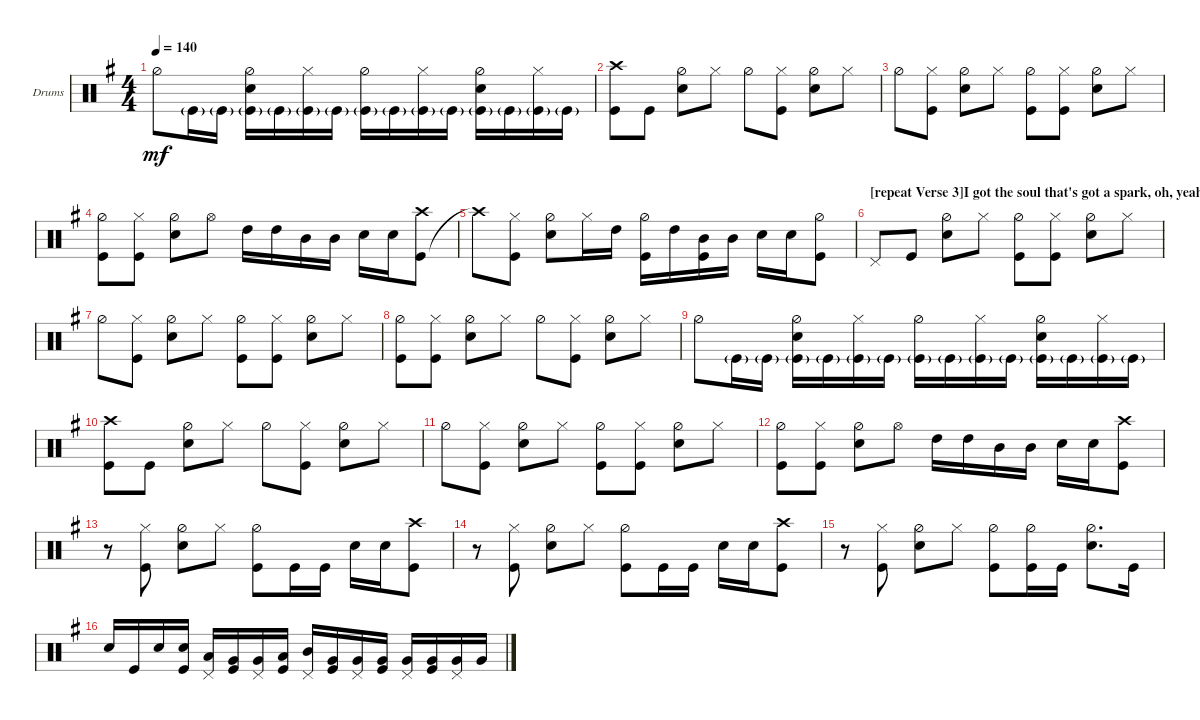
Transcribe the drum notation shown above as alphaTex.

\defaultSystemsLayout 4
\bracketExtendMode groupsimilarinstruments
\firstSystemTrackNameOrientation horizontal
\otherSystemsTrackNameOrientation horizontal
\track ("Drumkit" "Drums") {instrument percussion}
\staff {score}
\articulation defaults
\ts (4 4)
\tempo 140
\clef neutral
\ks g "Hi-Hat (half)".8{dy mf} "Kick (hit)"{g}.16 "Kick (hit)"{g}.16
("Kick (hit)"{g} "Hi-Hat (half)" "Snare (hit) 2").16 "Kick (hit)"{g}.16 ("Kick (hit)"{g} "Hi-Hat (closed)").16 "Kick (hit)"{g}.16 ("Kick (hit)"{g} "Hi-Hat (half)").16 "Kick (hit)"{g}.16 ("Kick (hit)"{g} "Hi-Hat (closed)").16 "Kick (hit)"{g}.16 ("Kick (hit)"{g} "Hi-Hat (half)" "Snare (hit) 2").16 "Kick (hit)"{g}.16 ("Kick (hit)"{g} "Hi-Hat (closed)").16 "Kick (hit)"{g}.16 |
("Crash high (hit)" "Kick (hit)").8 "Kick (hit)".8 ("Hi-Hat (half)" "Snare (hit) 2").8 "Hi-Hat (closed)".8 "Hi-Hat (half)".8 ("Kick (hit)" "Hi-Hat (closed)").8 ("Hi-Hat (half)" "Snare (hit) 2").8 "Hi-Hat (closed)".8 |
"Hi-Hat (half)".8 ("Hi-Hat (closed)" "Kick (hit)").8 ("Hi-Hat (half)" "Snare (hit) 2").8 "Hi-Hat (closed)".8 ("Hi-Hat (half)" "Kick (hit)").8 ("Kick (hit)" "Hi-Hat (closed)").8 ("Hi-Hat (half)" "Snare (hit) 2").8 "Hi-Hat (closed)".8 |
("Hi-Hat (half)" "Kick (hit)").8 ("Hi-Hat (closed)" "Kick (hit)").8 ("Hi-Hat (half)" "Snare (hit) 2").8 "Hi-Hat (open)".8 "High Tom (hit)".16 "High Tom (hit)".16 "Mid Tom (hit)".16 "Mid Tom (hit)".16 "Snare (hit) 2".16 "Snare (hit) 2".16 ("Kick (hit)" "Crash high (hit)").8 |
"Crash high (hit)"{t}.8 ("Hi-Hat (closed)" "Kick (hit)").8 ("Hi-Hat (half)" "Snare (hit) 2").8 "Hi-Hat (closed)".16 "High Tom (hit)".16 ("Hi-Hat (half)" "Kick (hit)").16 "High Tom (hit)".16 ("Kick (hit)" "Mid Tom (hit)").16 "Mid Tom (hit)".16 "Snare (hit) 2".16 "Snare (hit) 2".16 ("Kick (hit)" "Hi-Hat (half)").8 |
\section ("" "[repeat Verse 3]I got the soul that's got a spark, oh, yeah")
"Pedal Hi-Hat (hit)".8 "Kick (hit)".8 ("Hi-Hat (half)" "Snare (hit) 2").8 "Hi-Hat (closed)".8 ("Hi-Hat (half)" "Kick (hit)").8 ("Kick (hit)" "Hi-Hat (closed)").8 ("Hi-Hat (half)" "Snare (hit) 2").8 "Hi-Hat (closed)".8 |
"Hi-Hat (half)".8 ("Hi-Hat (closed)" "Kick (hit)").8 ("Hi-Hat (half)" "Snare (hit) 2").8 "Hi-Hat (closed)".8 ("Hi-Hat (half)" "Kick (hit)").8 ("Kick (hit)" "Hi-Hat (closed)").8 ("Hi-Hat (half)" "Snare (hit) 2").8 "Hi-Hat (closed)".8 |
("Hi-Hat (half)" "Kick (hit)").8 ("Hi-Hat (closed)" "Kick (hit)").8 ("Hi-Hat (half)" "Snare (hit) 2").8 "Hi-Hat (closed)".8 "Hi-Hat (half)".8 ("Kick (hit)" "Hi-Hat (closed)").8 ("Hi-Hat (half)" "Snare (hit) 2").8 "Hi-Hat (closed)".8 |
"Hi-Hat (half)".8 "Kick (hit)"{g}.16 "Kick (hit)"{g}.16 ("Kick (hit)"{g} "Hi-Hat (half)" "Snare (hit) 2").16 "Kick (hit)"{g}.16 ("Kick (hit)"{g} "Hi-Hat (closed)").16 "Kick (hit)"{g}.16 ("Kick (hit)"{g} "Hi-Hat (half)").16 "Kick (hit)"{g}.16 ("Kick (hit)"{g} "Hi-Hat (closed)").16 "Kick (hit)"{g}.16 ("Kick (hit)"{g} "Hi-Hat (half)" "Snare (hit) 2").16 "Kick (hit)"{g}.16 ("Kick (hit)"{g} "Hi-Hat (closed)").16 "Kick (hit)"{g}.16 |
("Crash high (hit)" "Kick (hit)").8 "Kick (hit)".8 ("Hi-Hat (half)" "Snare (hit) 2").8 "Hi-Hat (closed)".8 "Hi-Hat (half)".8 ("Kick (hit)" "Hi-Hat (closed)").8 ("Hi-Hat (half)" "Snare (hit) 2").8 "Hi-Hat (closed)".8 |
"Hi-Hat (half)".8 ("Hi-Hat (closed)" "Kick (hit)").8 ("Hi-Hat (half)" "Snare (hit) 2").8 "Hi-Hat (closed)".8 ("Hi-Hat (half)" "Kick (hit)").8 ("Kick (hit)" "Hi-Hat (closed)").8 ("Hi-Hat (half)" "Snare (hit) 2").8 "Hi-Hat (closed)".8 |
("Hi-Hat (half)" "Kick (hit)").8 ("Hi-Hat (closed)" "Kick (hit)").8 ("Hi-Hat (half)" "Snare (hit) 2").8 "Hi-Hat (open)".8 "High Tom (hit)".16 "High Tom (hit)".16 "Mid Tom (hit)".16 "Mid Tom (hit)".16 "Snare (hit) 2".16 "Snare (hit) 2".16 ("Kick (hit)" "Crash high (hit)").8 |
r.8 ("Hi-Hat (closed)" "Kick (hit)").8 ("Hi-Hat (half)" "Snare (hit) 2").8 "Hi-Hat (closed)".8 ("Hi-Hat (half)" "Kick (hit)").8 "Kick (hit)".16 "Kick (hit)".16 "Snare (hit) 2".16 "Snare (hit) 2".16 ("Kick (hit)" "Crash high (hit)").8 |
r.8 ("Hi-Hat (closed)" "Kick (hit)").8 ("Hi-Hat (half)" "Snare (hit) 2").8 "Hi-Hat (closed)".8 ("Hi-Hat (half)" "Kick (hit)").8 "Kick (hit)".16 "Kick (hit)".16 "Snare (hit) 2".16 "Snare (hit) 2".16 ("Kick (hit)" "Crash high (hit)").8 |
r.8 ("Hi-Hat (closed)" "Kick (hit)").8 ("Hi-Hat (half)" "Snare (hit) 2").8 "Hi-Hat (closed)".8 ("Hi-Hat (half)" "Kick (hit)").8 ("Kick (hit)" "Hi-Hat (half)").16 "Kick (hit)".16 ("Snare (hit) 2" "Hi-Hat (half)").8{d} "Kick (hit)".16 |
"Snare (hit) 2".16 "Kick (hit)".16 "Snare (hit) 2".16 ("Kick (hit)" "Snare (hit) 2").16 ("Pedal Hi-Hat (hit)" "Low Tom (hit)").16 ("Kick (hit)" "Very Low Tom (hit)").16 ("Pedal Hi-Hat (hit)" "Very Low Tom (hit)").16 ("Kick (hit)" "Low Tom (hit)").16 ("Pedal Hi-Hat (hit)" "Mid Tom (hit)").16 ("Kick (hit)" "Very Low Tom (hit)").16 ("Pedal Hi-Hat (hit)" "Very Low Tom (hit)").16 ("Kick (hit)" "Very Low Tom (hit)").16 ("Pedal Hi-Hat (hit)" "Very Low Tom (hit)").16 ("Kick (hit)" "Very Low Tom (hit)").16 ("Pedal Hi-Hat (hit)" "Very Low Tom (hit)").16 "Very Low Tom (hit)".16
